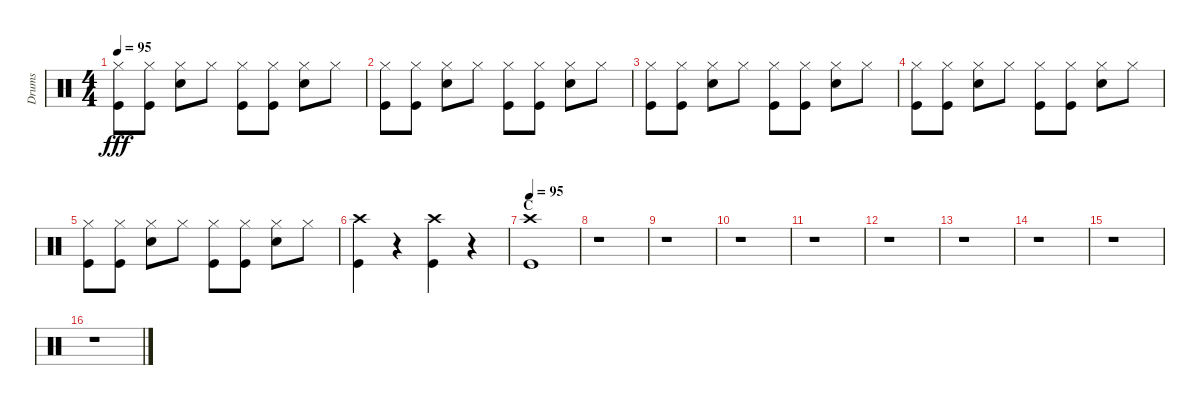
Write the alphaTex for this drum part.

\track ("Drums" "Drums") {instrument percussion}
\staff {score}
\articulation defaults
\ts (4 4)
\tempo 95
\clef neutral
\ks c
("Hi-Hat (closed)" "Kick (hit)").8{dy fff} ("Hi-Hat (closed)" "Kick (hit)").8 ("Hi-Hat (closed)" "Snare (hit) 2").8 "Hi-Hat (closed)".8 ("Hi-Hat (closed)" "Kick (hit)").8 ("Hi-Hat (closed)" "Kick (hit)").8 ("Hi-Hat (closed)" "Snare (hit) 2").8 "Hi-Hat (closed)".8 |
("Hi-Hat (closed)" "Kick (hit)").8 ("Hi-Hat (closed)" "Kick (hit)").8 ("Hi-Hat (closed)" "Snare (hit) 2").8 "Hi-Hat (closed)".8 ("Hi-Hat (closed)" "Kick (hit)").8 ("Hi-Hat (closed)" "Kick (hit)").8 ("Hi-Hat (closed)" "Snare (hit) 2").8 "Hi-Hat (closed)".8 |
("Hi-Hat (closed)" "Kick (hit)").8 ("Hi-Hat (closed)" "Kick (hit)").8 ("Hi-Hat (closed)" "Snare (hit) 2").8 "Hi-Hat (closed)".8 ("Hi-Hat (closed)" "Kick (hit)").8 ("Hi-Hat (closed)" "Kick (hit)").8 ("Hi-Hat (closed)" "Snare (hit) 2").8 "Hi-Hat (closed)".8 |
("Hi-Hat (closed)" "Kick (hit)").8 ("Hi-Hat (closed)" "Kick (hit)").8 ("Hi-Hat (closed)" "Snare (hit) 2").8 "Hi-Hat (closed)".8 ("Hi-Hat (closed)" "Kick (hit)").8 ("Hi-Hat (closed)" "Kick (hit)").8 ("Hi-Hat (closed)" "Snare (hit) 2").8 "Hi-Hat (closed)".8 |
("Hi-Hat (closed)" "Kick (hit)").8 ("Hi-Hat (closed)" "Kick (hit)").8 ("Hi-Hat (closed)" "Snare (hit) 2").8 "Hi-Hat (closed)".8 ("Hi-Hat (closed)" "Kick (hit)").8 ("Hi-Hat (closed)" "Kick (hit)").8 ("Hi-Hat (closed)" "Snare (hit) 2").8 "Hi-Hat (closed)".8 |
("Crash high (hit)" "Kick (hit)").4 r.4 ("Crash high (hit)" "Kick (hit)").4 r.4 |
\section ("" "C")
\tempo 95
("Crash high (hit)" "Kick (hit)").1 |
r.1 |
r.1 |
r.1 |
r.1 |
r.1 |
r.1 |
r.1 |
r.1 |
r.1
